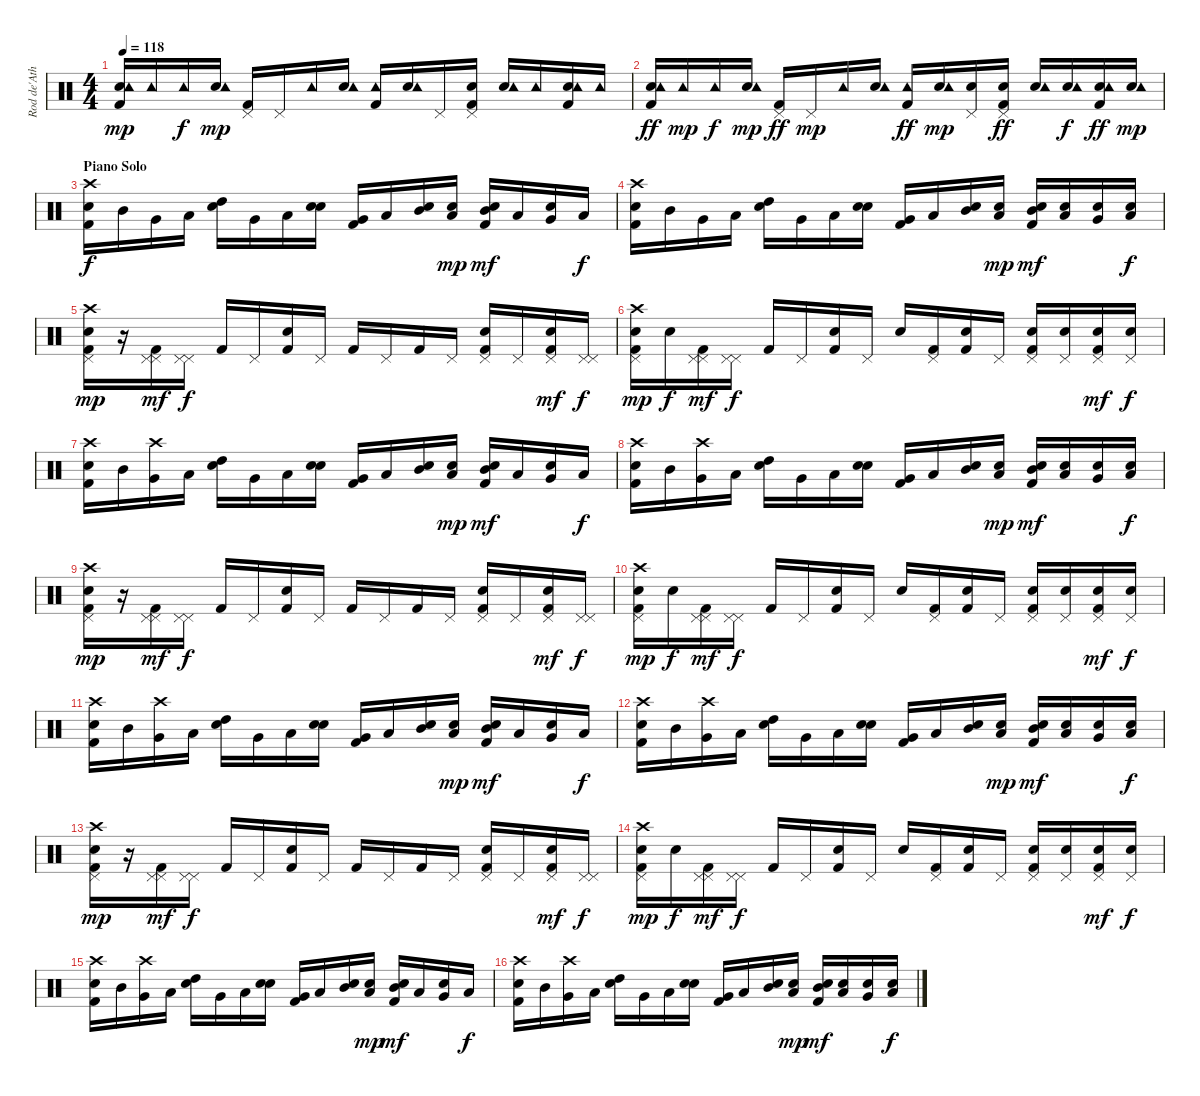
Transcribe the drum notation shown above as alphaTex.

\track ("Rod de'Ath" "Rod de'Ath") {instrument percussion}
\staff {score}
\articulation defaults
\ts (4 4)
\tempo 118
\clef neutral
\ks c
("Snare (hit) 2" "Tambourine (hit)" "Kick (hit) 2").16{dy mp} "Tambourine (hit)".16 "Tambourine (hit)".16{dy f} ("Snare (hit) 2" "Tambourine (hit)").16{dy mp} ("Pedal Hi-Hat (hit)" "Kick (hit) 2").16 "Pedal Hi-Hat (hit)".16 "Tambourine (hit)".16 ("Snare (hit) 2" "Tambourine (hit)").16 ("Tambourine (hit)" "Kick (hit) 2").16 ("Snare (hit) 2" "Tambourine (hit)").16 "Pedal Hi-Hat (hit)".16 ("Snare (hit) 2" "Pedal Hi-Hat (hit)" "Kick (hit) 2").16 ("Snare (hit) 2" "Tambourine (hit)").16 "Tambourine (hit)".16 ("Snare (hit) 2" "Tambourine (hit)" "Kick (hit) 2").16 "Tambourine (hit)".16 |
("Snare (hit) 2" "Tambourine (hit)" "Kick (hit) 2").16{dy ff} "Tambourine (hit)".16{dy mp} "Tambourine (hit)".16{dy f} ("Snare (hit) 2" "Tambourine (hit)").16{dy mp} ("Pedal Hi-Hat (hit)" "Kick (hit) 2").16{dy ff} "Pedal Hi-Hat (hit)".16{dy mp} "Tambourine (hit)".16 ("Snare (hit) 2" "Tambourine (hit)").16 ("Tambourine (hit)" "Kick (hit) 2").16{dy ff} ("Snare (hit) 2" "Tambourine (hit)").16{dy mp} ("Snare (hit) 2" "Pedal Hi-Hat (hit)").16 ("Snare (hit) 2" "Pedal Hi-Hat (hit)" "Kick (hit) 2").16{dy ff} ("Snare (hit) 2" "Tambourine (hit)").16 ("Snare (hit) 2" "Tambourine (hit)").16{dy f} ("Snare (hit) 2" "Tambourine (hit)" "Kick (hit) 2").16{dy ff} ("Snare (hit) 2" "Tambourine (hit)").16{dy mp} |
\section ("" "Piano Solo")
("Crash high (hit)" "Snare (hit) 2" "Kick (hit) 2").16{dy f} "Mid Tom (hit)".16 "Very Low Tom (hit)".16 "Low Tom (hit)".16 ("Snare (hit) 2" "High Tom (hit)").16 "Very Low Tom (hit)".16 "Low Tom (hit)".16 ("Electric Snare (hit)" "Snare (hit) 2").16 ("Very Low Tom (hit)" "Kick (hit) 2").16 "Low Tom (hit)".16 ("Electric Snare (hit)" "Mid Tom (hit)").16 ("Electric Snare (hit)" "Low Tom (hit)").16{dy mp} ("Snare (hit) 2" "Mid Tom (hit)" "Kick (hit) 2").16{dy mf} "Low Tom (hit)".16 ("Snare (hit) 2" "Very Low Tom (hit)").16 "Low Tom (hit)".16{dy f} |
("Crash high (hit)" "Snare (hit) 2" "Kick (hit) 2").16 "Mid Tom (hit)".16 "Very Low Tom (hit)".16 "Low Tom (hit)".16 ("Snare (hit) 2" "High Tom (hit)").16 "Very Low Tom (hit)".16 "Low Tom (hit)".16 ("Electric Snare (hit)" "Snare (hit) 2").16 ("Very Low Tom (hit)" "Kick (hit) 2").16 "Low Tom (hit)".16 ("Electric Snare (hit)" "Mid Tom (hit)").16 ("Electric Snare (hit)" "Low Tom (hit)").16{dy mp} ("Electric Snare (hit)" "Mid Tom (hit)" "Kick (hit) 2").16{dy mf} ("Electric Snare (hit)" "Low Tom (hit)").16 ("Electric Snare (hit)" "Very Low Tom (hit)").16 ("Electric Snare (hit)" "Low Tom (hit)").16{dy f} |
("Crash high (hit)" "Snare (hit) 2" "Pedal Hi-Hat (hit)" "Kick (hit) 2").16{dy mp} r.16 ("Pedal Hi-Hat (hit)" "Pedal Hi-Hat (hit)" "Kick (hit) 2").16{dy mf} ("Pedal Hi-Hat (hit)" "Pedal Hi-Hat (hit)").16{dy f} "Kick (hit) 2".16 "Pedal Hi-Hat (hit)".16 ("Snare (hit) 2" "Kick (hit) 2").16 "Pedal Hi-Hat (hit)".16 "Kick (hit) 2".16 "Pedal Hi-Hat (hit)".16 "Kick (hit) 2".16 "Pedal Hi-Hat (hit)".16 ("Snare (hit) 2" "Pedal Hi-Hat (hit)" "Kick (hit) 2").16 "Pedal Hi-Hat (hit)".16 ("Snare (hit) 2" "Pedal Hi-Hat (hit)" "Kick (hit) 2").16{dy mf} ("Pedal Hi-Hat (hit)" "Pedal Hi-Hat (hit)").16{dy f} |
("Crash high (hit)" "Snare (hit) 2" "Pedal Hi-Hat (hit)" "Kick (hit) 2").16{dy mp} "Electric Snare (hit)".16{dy f} ("Pedal Hi-Hat (hit)" "Pedal Hi-Hat (hit)" "Kick (hit) 2").16{dy mf} ("Pedal Hi-Hat (hit)" "Pedal Hi-Hat (hit)").16{dy f} "Kick (hit) 2".16 "Pedal Hi-Hat (hit)".16 ("Snare (hit) 2" "Kick (hit) 2").16 "Pedal Hi-Hat (hit)".16 "Snare (hit) 2".16 ("Pedal Hi-Hat (hit)" "Kick (hit) 2").16 ("Snare (hit) 2" "Kick (hit) 2").16 "Pedal Hi-Hat (hit)".16 ("Snare (hit) 2" "Pedal Hi-Hat (hit)" "Kick (hit) 2").16 ("Snare (hit) 2" "Pedal Hi-Hat (hit)").16 ("Snare (hit) 2" "Pedal Hi-Hat (hit)" "Kick (hit) 2").16{dy mf} ("Snare (hit) 2" "Pedal Hi-Hat (hit)").16{dy f} |
("Crash high (hit)" "Snare (hit) 2" "Kick (hit) 2").16 "Mid Tom (hit)".16 ("Crash high (hit)" "Very Low Tom (hit)").16 "Low Tom (hit)".16 ("Snare (hit) 2" "High Tom (hit)").16 "Very Low Tom (hit)".16 "Low Tom (hit)".16 ("Electric Snare (hit)" "Snare (hit) 2").16 ("Very Low Tom (hit)" "Kick (hit) 2").16 "Low Tom (hit)".16 ("Electric Snare (hit)" "Mid Tom (hit)").16 ("Electric Snare (hit)" "Low Tom (hit)").16{dy mp} ("Snare (hit) 2" "Mid Tom (hit)" "Kick (hit) 2").16{dy mf} "Low Tom (hit)".16 ("Snare (hit) 2" "Very Low Tom (hit)").16 "Low Tom (hit)".16{dy f} |
("Crash high (hit)" "Snare (hit) 2" "Kick (hit) 2").16 "Mid Tom (hit)".16 ("Crash high (hit)" "Very Low Tom (hit)").16 "Low Tom (hit)".16 ("Snare (hit) 2" "High Tom (hit)").16 "Very Low Tom (hit)".16 "Low Tom (hit)".16 ("Electric Snare (hit)" "Snare (hit) 2").16 ("Very Low Tom (hit)" "Kick (hit) 2").16 "Low Tom (hit)".16 ("Electric Snare (hit)" "Mid Tom (hit)").16 ("Electric Snare (hit)" "Low Tom (hit)").16{dy mp} ("Electric Snare (hit)" "Mid Tom (hit)" "Kick (hit) 2").16{dy mf} ("Electric Snare (hit)" "Low Tom (hit)").16 ("Electric Snare (hit)" "Very Low Tom (hit)").16 ("Electric Snare (hit)" "Low Tom (hit)").16{dy f} |
("Crash high (hit)" "Snare (hit) 2" "Pedal Hi-Hat (hit)" "Kick (hit) 2").16{dy mp} r.16 ("Pedal Hi-Hat (hit)" "Pedal Hi-Hat (hit)" "Kick (hit) 2").16{dy mf} ("Pedal Hi-Hat (hit)" "Pedal Hi-Hat (hit)").16{dy f} "Kick (hit) 2".16 "Pedal Hi-Hat (hit)".16 ("Snare (hit) 2" "Kick (hit) 2").16 "Pedal Hi-Hat (hit)".16 "Kick (hit) 2".16 "Pedal Hi-Hat (hit)".16 "Kick (hit) 2".16 "Pedal Hi-Hat (hit)".16 ("Snare (hit) 2" "Pedal Hi-Hat (hit)" "Kick (hit) 2").16 "Pedal Hi-Hat (hit)".16 ("Snare (hit) 2" "Pedal Hi-Hat (hit)" "Kick (hit) 2").16{dy mf} ("Pedal Hi-Hat (hit)" "Pedal Hi-Hat (hit)").16{dy f} |
("Crash high (hit)" "Snare (hit) 2" "Pedal Hi-Hat (hit)" "Kick (hit) 2").16{dy mp} "Electric Snare (hit)".16{dy f} ("Pedal Hi-Hat (hit)" "Pedal Hi-Hat (hit)" "Kick (hit) 2").16{dy mf} ("Pedal Hi-Hat (hit)" "Pedal Hi-Hat (hit)").16{dy f} "Kick (hit) 2".16 "Pedal Hi-Hat (hit)".16 ("Snare (hit) 2" "Kick (hit) 2").16 "Pedal Hi-Hat (hit)".16 "Snare (hit) 2".16 ("Pedal Hi-Hat (hit)" "Kick (hit) 2").16 ("Snare (hit) 2" "Kick (hit) 2").16 "Pedal Hi-Hat (hit)".16 ("Snare (hit) 2" "Pedal Hi-Hat (hit)" "Kick (hit) 2").16 ("Snare (hit) 2" "Pedal Hi-Hat (hit)").16 ("Snare (hit) 2" "Pedal Hi-Hat (hit)" "Kick (hit) 2").16{dy mf} ("Snare (hit) 2" "Pedal Hi-Hat (hit)").16{dy f} |
("Crash high (hit)" "Snare (hit) 2" "Kick (hit) 2").16 "Mid Tom (hit)".16 ("Crash high (hit)" "Very Low Tom (hit)").16 "Low Tom (hit)".16 ("Snare (hit) 2" "High Tom (hit)").16 "Very Low Tom (hit)".16 "Low Tom (hit)".16 ("Electric Snare (hit)" "Snare (hit) 2").16 ("Very Low Tom (hit)" "Kick (hit) 2").16 "Low Tom (hit)".16 ("Electric Snare (hit)" "Mid Tom (hit)").16 ("Electric Snare (hit)" "Low Tom (hit)").16{dy mp} ("Snare (hit) 2" "Mid Tom (hit)" "Kick (hit) 2").16{dy mf} "Low Tom (hit)".16 ("Snare (hit) 2" "Very Low Tom (hit)").16 "Low Tom (hit)".16{dy f} |
("Crash high (hit)" "Snare (hit) 2" "Kick (hit) 2").16 "Mid Tom (hit)".16 ("Crash high (hit)" "Very Low Tom (hit)").16 "Low Tom (hit)".16 ("Snare (hit) 2" "High Tom (hit)").16 "Very Low Tom (hit)".16 "Low Tom (hit)".16 ("Electric Snare (hit)" "Snare (hit) 2").16 ("Very Low Tom (hit)" "Kick (hit) 2").16 "Low Tom (hit)".16 ("Electric Snare (hit)" "Mid Tom (hit)").16 ("Electric Snare (hit)" "Low Tom (hit)").16{dy mp} ("Electric Snare (hit)" "Mid Tom (hit)" "Kick (hit) 2").16{dy mf} ("Electric Snare (hit)" "Low Tom (hit)").16 ("Electric Snare (hit)" "Very Low Tom (hit)").16 ("Electric Snare (hit)" "Low Tom (hit)").16{dy f} |
("Crash high (hit)" "Snare (hit) 2" "Pedal Hi-Hat (hit)" "Kick (hit) 2").16{dy mp} r.16 ("Pedal Hi-Hat (hit)" "Pedal Hi-Hat (hit)" "Kick (hit) 2").16{dy mf} ("Pedal Hi-Hat (hit)" "Pedal Hi-Hat (hit)").16{dy f} "Kick (hit) 2".16 "Pedal Hi-Hat (hit)".16 ("Snare (hit) 2" "Kick (hit) 2").16 "Pedal Hi-Hat (hit)".16 "Kick (hit) 2".16 "Pedal Hi-Hat (hit)".16 "Kick (hit) 2".16 "Pedal Hi-Hat (hit)".16 ("Snare (hit) 2" "Pedal Hi-Hat (hit)" "Kick (hit) 2").16 "Pedal Hi-Hat (hit)".16 ("Snare (hit) 2" "Pedal Hi-Hat (hit)" "Kick (hit) 2").16{dy mf} ("Pedal Hi-Hat (hit)" "Pedal Hi-Hat (hit)").16{dy f} |
("Crash high (hit)" "Snare (hit) 2" "Pedal Hi-Hat (hit)" "Kick (hit) 2").16{dy mp} "Electric Snare (hit)".16{dy f} ("Pedal Hi-Hat (hit)" "Pedal Hi-Hat (hit)" "Kick (hit) 2").16{dy mf} ("Pedal Hi-Hat (hit)" "Pedal Hi-Hat (hit)").16{dy f} "Kick (hit) 2".16 "Pedal Hi-Hat (hit)".16 ("Snare (hit) 2" "Kick (hit) 2").16 "Pedal Hi-Hat (hit)".16 "Snare (hit) 2".16 ("Pedal Hi-Hat (hit)" "Kick (hit) 2").16 ("Snare (hit) 2" "Kick (hit) 2").16 "Pedal Hi-Hat (hit)".16 ("Snare (hit) 2" "Pedal Hi-Hat (hit)" "Kick (hit) 2").16 ("Snare (hit) 2" "Pedal Hi-Hat (hit)").16 ("Snare (hit) 2" "Pedal Hi-Hat (hit)" "Kick (hit) 2").16{dy mf} ("Snare (hit) 2" "Pedal Hi-Hat (hit)").16{dy f} |
("Crash high (hit)" "Snare (hit) 2" "Kick (hit) 2").16 "Mid Tom (hit)".16 ("Crash high (hit)" "Very Low Tom (hit)").16 "Low Tom (hit)".16 ("Snare (hit) 2" "High Tom (hit)").16 "Very Low Tom (hit)".16 "Low Tom (hit)".16 ("Electric Snare (hit)" "Snare (hit) 2").16 ("Very Low Tom (hit)" "Kick (hit) 2").16 "Low Tom (hit)".16 ("Electric Snare (hit)" "Mid Tom (hit)").16 ("Electric Snare (hit)" "Low Tom (hit)").16{dy mp} ("Snare (hit) 2" "Mid Tom (hit)" "Kick (hit) 2").16{dy mf} "Low Tom (hit)".16 ("Snare (hit) 2" "Very Low Tom (hit)").16 "Low Tom (hit)".16{dy f} |
("Crash high (hit)" "Snare (hit) 2" "Kick (hit) 2").16 "Mid Tom (hit)".16 ("Crash high (hit)" "Very Low Tom (hit)").16 "Low Tom (hit)".16 ("Snare (hit) 2" "High Tom (hit)").16 "Very Low Tom (hit)".16 "Low Tom (hit)".16 ("Electric Snare (hit)" "Snare (hit) 2").16 ("Very Low Tom (hit)" "Kick (hit) 2").16 "Low Tom (hit)".16 ("Electric Snare (hit)" "Mid Tom (hit)").16 ("Electric Snare (hit)" "Low Tom (hit)").16{dy mp} ("Electric Snare (hit)" "Mid Tom (hit)" "Kick (hit) 2").16{dy mf} ("Electric Snare (hit)" "Low Tom (hit)").16 ("Electric Snare (hit)" "Very Low Tom (hit)").16 ("Electric Snare (hit)" "Low Tom (hit)").16{dy f}
